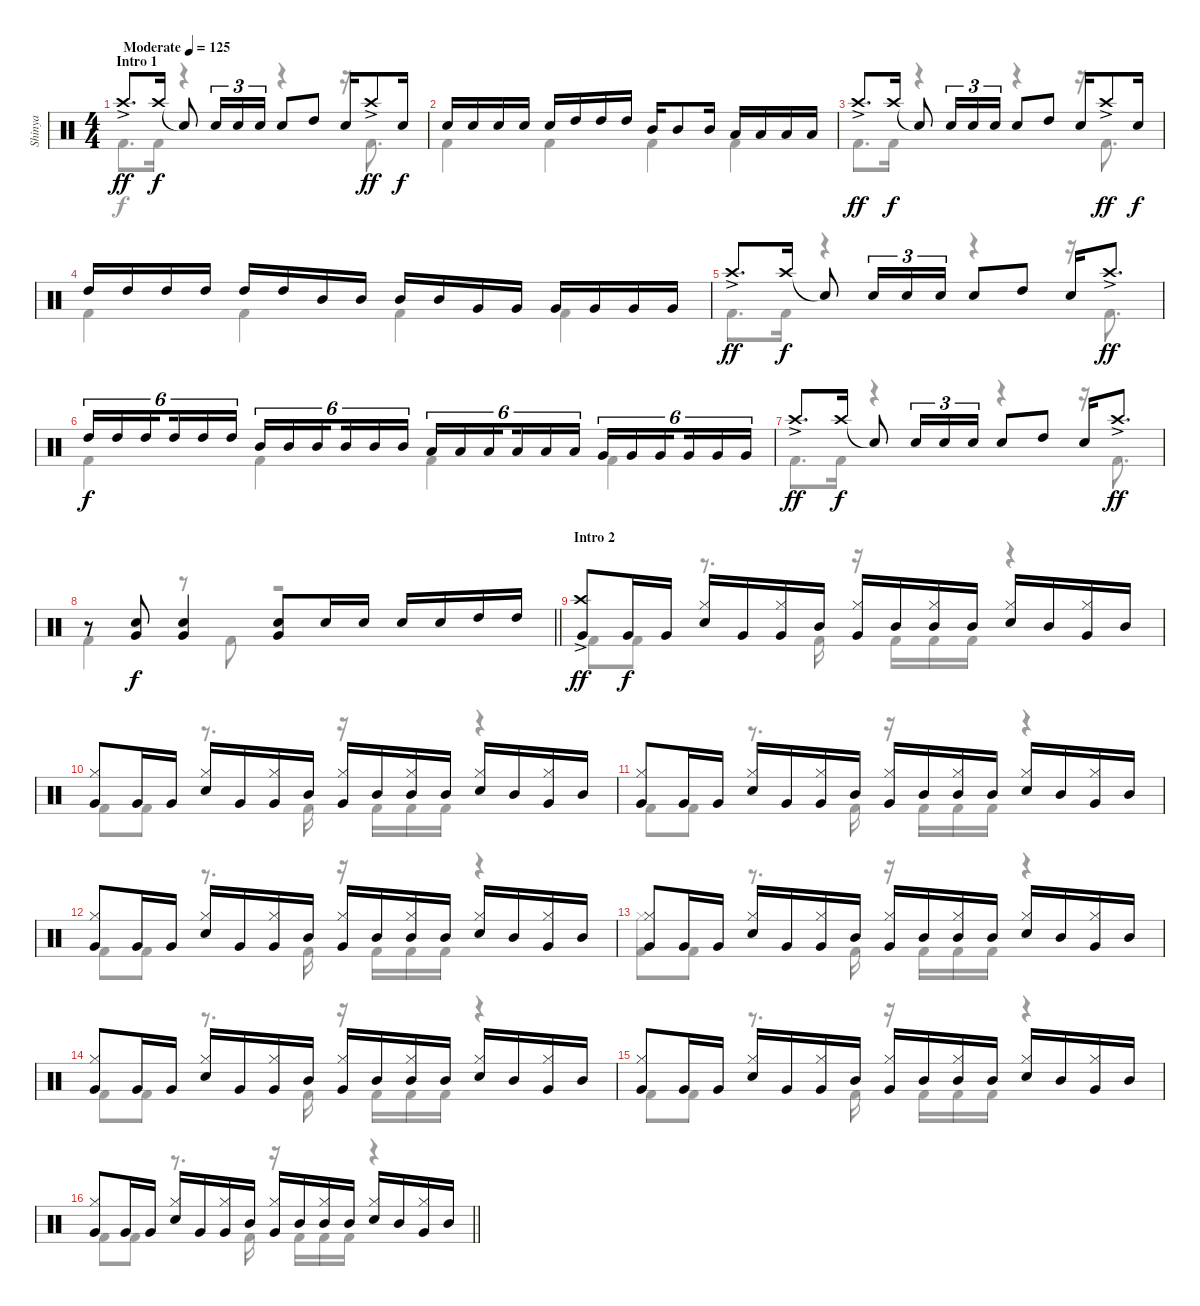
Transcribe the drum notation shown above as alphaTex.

\track ("Shinya" "Shinya") {instrument percussion}
\staff {score}
\articulation defaults
\voice
\ts (4 4)
\section ("" "Intro 1")
\tempo (125 "Moderate")
\clef neutral
\ks c "Crash high (hit)"{ac}.8{d dy ff} "Crash high (hit)".16{dy f} "Snare (hit)"{t}.8 "Snare (hit) 2".16{tu (3 2)} "Snare (hit) 2".16{tu (3 2)} "Snare (hit) 2".16{tu (3 2)} "Snare (hit) 2".8 "High Tom (hit)".8 "Snare (hit) 2".16 "Crash high (hit)"{ac}.8{dy ff} "Snare (hit) 2".16{dy f}
|
"Snare (hit) 2".16 "Snare (hit) 2".16 "Snare (hit) 2".16 "Snare (hit) 2".16 "Snare (hit) 2".16 "High Tom (hit)".16 "High Tom (hit)".16 "High Tom (hit)".16 "Mid Tom (hit)".16 "Mid Tom (hit)".8 "Mid Tom (hit)".16 "Low Tom (hit)".16 "Low Tom (hit)".16 "Low Tom (hit)".16 "Low Tom (hit)".16 |
"Crash high (hit)"{ac}.8{d dy ff} "Crash high (hit)".16{dy f} "Snare (hit)"{t}.8 "Snare (hit) 2".16{tu (3 2)} "Snare (hit) 2".16{tu (3 2)} "Snare (hit) 2".16{tu (3 2)} "Snare (hit) 2".8 "High Tom (hit)".8 "Snare (hit) 2".16 "Crash high (hit)"{ac}.8{dy ff} "Snare (hit) 2".16{dy f} |
"High Tom (hit)".16 "High Tom (hit)".16 "High Tom (hit)".16 "High Tom (hit)".16 "High Tom (hit)".16 "High Tom (hit)".16 "Mid Tom (hit)".16 "Mid Tom (hit)".16 "Mid Tom (hit)".16 "Mid Tom (hit)".16 "Very Low Tom (hit)".16 "Very Low Tom (hit)".16 "Very Low Tom (hit)".16 "Very Low Tom (hit)".16 "Very Low Tom (hit)".16 "Very Low Tom (hit)".16 |
"Crash high (hit)"{ac}.8{d dy ff} "Crash high (hit)".16{dy f} "Snare (hit)"{t}.8 "Snare (hit) 2".16{tu (3 2)} "Snare (hit) 2".16{tu (3 2)} "Snare (hit) 2".16{tu (3 2)} "Snare (hit) 2".8 "High Tom (hit)".8 "Snare (hit) 2".16 "Crash high (hit)"{ac}.8{d dy ff} |
"High Tom (hit)".16{tu (6 4) dy f} "High Tom (hit)".16{tu (6 4)} "High Tom (hit)".16{tu (6 4) beam splitsecondary} "High Tom (hit)".16{tu (6 4)} "High Tom (hit)".16{tu (6 4)} "High Tom (hit)".16{tu (6 4)} "Mid Tom (hit)".16{tu (6 4)} "Mid Tom (hit)".16{tu (6 4)} "Mid Tom (hit)".16{tu (6 4) beam splitsecondary} "Mid Tom (hit)".16{tu (6 4)} "Mid Tom (hit)".16{tu (6 4)} "Mid Tom (hit)".16{tu (6 4)} "Low Tom (hit)".16{tu (6 4)} "Low Tom (hit)".16{tu (6 4)} "Low Tom (hit)".16{tu (6 4) beam splitsecondary} "Low Tom (hit)".16{tu (6 4)} "Low Tom (hit)".16{tu (6 4)} "Low Tom (hit)".16{tu (6 4)} "Very Low Tom (hit)".16{tu (6 4)} "Very Low Tom (hit)".16{tu (6 4)} "Very Low Tom (hit)".16{tu (6 4) beam splitsecondary} "Very Low Tom (hit)".16{tu (6 4)} "Very Low Tom (hit)".16{tu (6 4)} "Very Low Tom (hit)".16{tu (6 4)} |
"Crash high (hit)"{ac}.8{d dy ff} "Crash high (hit)".16{dy f} "Snare (hit)"{t}.8 "Snare (hit) 2".16{tu (3 2)} "Snare (hit) 2".16{tu (3 2)} "Snare (hit) 2".16{tu (3 2)} "Snare (hit) 2".8 "High Tom (hit)".8 "Snare (hit) 2".16 "Crash high (hit)"{ac}.8{d dy ff} |
\barLineRight lightlight
r.8 ("Snare (hit) 2" "Very Low Tom (hit)").8{dy f} ("Snare (hit) 2" "Very Low Tom (hit)").4 ("Snare (hit) 2" "Very Low Tom (hit)").8 "Snare (hit) 2".16 "Snare (hit) 2".16 "Snare (hit) 2".16 "Snare (hit) 2".16 "High Tom (hit)".16 "High Tom (hit)".16 |
\section ("" "Intro 2")
("Crash high (hit)"{ac} "Very Low Tom (hit)").8{dy ff} "Very Low Tom (hit)".16{dy f} "Very Low Tom (hit)".16 ("Hi-Hat (closed)" "Snare (hit) 2").16 "Very Low Tom (hit)".16 ("Hi-Hat (closed)" "Very Low Tom (hit)").16 "Mid Tom (hit)".16 ("Hi-Hat (closed)" "Very Low Tom (hit)").16 "Mid Tom (hit)".16 ("Hi-Hat (closed)" "Mid Tom (hit)").16 "Mid Tom (hit)".16 ("Hi-Hat (closed)" "Snare (hit) 2").16 "Mid Tom (hit)".16 ("Hi-Hat (closed)" "Very Low Tom (hit)").16 "Mid Tom (hit)".16 |
("Hi-Hat (closed)" "Very Low Tom (hit)").8 "Very Low Tom (hit)".16 "Very Low Tom (hit)".16 ("Hi-Hat (closed)" "Snare (hit) 2").16 "Very Low Tom (hit)".16 ("Hi-Hat (closed)" "Very Low Tom (hit)").16 "Mid Tom (hit)".16 ("Hi-Hat (closed)" "Very Low Tom (hit)").16 "Mid Tom (hit)".16 ("Hi-Hat (closed)" "Mid Tom (hit)").16 "Mid Tom (hit)".16 ("Hi-Hat (closed)" "Snare (hit) 2").16 "Mid Tom (hit)".16 ("Hi-Hat (closed)" "Very Low Tom (hit)").16 "Mid Tom (hit)".16 |
("Hi-Hat (closed)" "Very Low Tom (hit)").8 "Very Low Tom (hit)".16 "Very Low Tom (hit)".16 ("Hi-Hat (closed)" "Snare (hit) 2").16 "Very Low Tom (hit)".16 ("Hi-Hat (closed)" "Very Low Tom (hit)").16 "Mid Tom (hit)".16 ("Hi-Hat (closed)" "Very Low Tom (hit)").16 "Mid Tom (hit)".16 ("Hi-Hat (closed)" "Mid Tom (hit)").16 "Mid Tom (hit)".16 ("Hi-Hat (closed)" "Snare (hit) 2").16 "Mid Tom (hit)".16 ("Hi-Hat (closed)" "Very Low Tom (hit)").16 "Mid Tom (hit)".16 |
("Hi-Hat (closed)" "Very Low Tom (hit)").8 "Very Low Tom (hit)".16 "Very Low Tom (hit)".16 ("Hi-Hat (closed)" "Snare (hit) 2").16 "Very Low Tom (hit)".16 ("Hi-Hat (closed)" "Very Low Tom (hit)").16 "Mid Tom (hit)".16 ("Hi-Hat (closed)" "Very Low Tom (hit)").16 "Mid Tom (hit)".16 ("Hi-Hat (closed)" "Mid Tom (hit)").16 "Mid Tom (hit)".16 ("Hi-Hat (closed)" "Snare (hit) 2").16 "Mid Tom (hit)".16 ("Hi-Hat (closed)" "Very Low Tom (hit)").16 "Mid Tom (hit)".16 |
("Hi-Hat (closed)" "Very Low Tom (hit)").8 "Very Low Tom (hit)".16 "Very Low Tom (hit)".16 ("Hi-Hat (closed)" "Snare (hit) 2").16 "Very Low Tom (hit)".16 ("Hi-Hat (closed)" "Very Low Tom (hit)").16 "Mid Tom (hit)".16 ("Hi-Hat (closed)" "Very Low Tom (hit)").16 "Mid Tom (hit)".16 ("Hi-Hat (closed)" "Mid Tom (hit)").16 "Mid Tom (hit)".16 ("Hi-Hat (closed)" "Snare (hit) 2").16 "Mid Tom (hit)".16 ("Hi-Hat (closed)" "Very Low Tom (hit)").16 "Mid Tom (hit)".16 |
("Hi-Hat (closed)" "Very Low Tom (hit)").8 "Very Low Tom (hit)".16 "Very Low Tom (hit)".16 ("Hi-Hat (closed)" "Snare (hit) 2").16 "Very Low Tom (hit)".16 ("Hi-Hat (closed)" "Very Low Tom (hit)").16 "Mid Tom (hit)".16 ("Hi-Hat (closed)" "Very Low Tom (hit)").16 "Mid Tom (hit)".16 ("Hi-Hat (closed)" "Mid Tom (hit)").16 "Mid Tom (hit)".16 ("Hi-Hat (closed)" "Snare (hit) 2").16 "Mid Tom (hit)".16 ("Hi-Hat (closed)" "Very Low Tom (hit)").16 "Mid Tom (hit)".16 |
("Hi-Hat (closed)" "Very Low Tom (hit)").8 "Very Low Tom (hit)".16 "Very Low Tom (hit)".16 ("Hi-Hat (closed)" "Snare (hit) 2").16 "Very Low Tom (hit)".16 ("Hi-Hat (closed)" "Very Low Tom (hit)").16 "Mid Tom (hit)".16 ("Hi-Hat (closed)" "Very Low Tom (hit)").16 "Mid Tom (hit)".16 ("Hi-Hat (closed)" "Mid Tom (hit)").16 "Mid Tom (hit)".16 ("Hi-Hat (closed)" "Snare (hit) 2").16 "Mid Tom (hit)".16 ("Hi-Hat (closed)" "Very Low Tom (hit)").16 "Mid Tom (hit)".16 |
\barLineRight lightlight
("Hi-Hat (closed)" "Very Low Tom (hit)").8 "Very Low Tom (hit)".16 "Very Low Tom (hit)".16 ("Hi-Hat (closed)" "Snare (hit) 2").16 "Very Low Tom (hit)".16 ("Hi-Hat (closed)" "Very Low Tom (hit)").16 "Mid Tom (hit)".16 ("Hi-Hat (closed)" "Very Low Tom (hit)").16 "Mid Tom (hit)".16 ("Hi-Hat (closed)" "Mid Tom (hit)").16 "Mid Tom (hit)".16 ("Hi-Hat (closed)" "Snare (hit) 2").16 "Mid Tom (hit)".16 ("Hi-Hat (closed)" "Very Low Tom (hit)").16 "Mid Tom (hit)".16
\voice
\clef neutral
\ottava regular
\simile none
\ks c "Kick (hit) 2".8{d dy f} "Kick (hit) 2".16
r.4 r.4 r.16 "Kick (hit) 2".8{d} |
"Kick (hit) 2".4 "Kick (hit) 2".4 "Kick (hit) 2".4 "Kick (hit) 2".4 |
"Kick (hit) 2".8{d} "Kick (hit) 2".16 r.4 r.4 r.16 "Kick (hit) 2".8{d} |
"Kick (hit) 2".4 "Kick (hit) 2".4 "Kick (hit) 2".4 "Kick (hit) 2".4 |
"Kick (hit) 2".8{d} "Kick (hit) 2".16 r.4 r.4 r.16 "Kick (hit) 2".8{d} |
"Kick (hit) 2".4 "Kick (hit) 2".4 "Kick (hit) 2".4 "Kick (hit) 2".4 |
"Kick (hit) 2".8{d} "Kick (hit) 2".16 r.4 r.4 r.16 "Kick (hit) 2".8{d} |
\barLineRight lightlight "Kick (hit) 2".4
r.8 "Kick (hit) 2".8 r.2 |
"Kick (hit) 2".8 "Kick (hit) 2".8 r.8{d} "Kick (hit) 2".16 r.16 "Kick (hit) 2".16 "Kick (hit) 2".16 "Kick (hit) 2".16 r.4 |
"Kick (hit) 2".8 "Kick (hit) 2".8 r.8{d} "Kick (hit) 2".16 r.16 "Kick (hit) 2".16 "Kick (hit) 2".16 "Kick (hit) 2".16 r.4 |
"Kick (hit) 2".8 "Kick (hit) 2".8 r.8{d} "Kick (hit) 2".16 r.16 "Kick (hit) 2".16 "Kick (hit) 2".16 "Kick (hit) 2".16 r.4 |
"Kick (hit) 2".8 "Kick (hit) 2".8 r.8{d} "Kick (hit) 2".16 r.16 "Kick (hit) 2".16 "Kick (hit) 2".16 "Kick (hit) 2".16 r.4 |
("Hi-Hat (closed)" "Kick (hit) 2").8 "Kick (hit) 2".8 r.8{d} "Kick (hit) 2".16 r.16 "Kick (hit) 2".16 "Kick (hit) 2".16 "Kick (hit) 2".16 r.4 |
"Kick (hit) 2".8 "Kick (hit) 2".8 r.8{d} "Kick (hit) 2".16 r.16 "Kick (hit) 2".16 "Kick (hit) 2".16 "Kick (hit) 2".16 r.4 |
"Kick (hit) 2".8 "Kick (hit) 2".8 r.8{d} "Kick (hit) 2".16 r.16 "Kick (hit) 2".16 "Kick (hit) 2".16 "Kick (hit) 2".16 r.4 |
\barLineRight lightlight "Kick (hit) 2".8 "Kick (hit) 2".8
r.8{d} "Kick (hit) 2".16 r.16 "Kick (hit) 2".16 "Kick (hit) 2".16 "Kick (hit) 2".16 r.4
